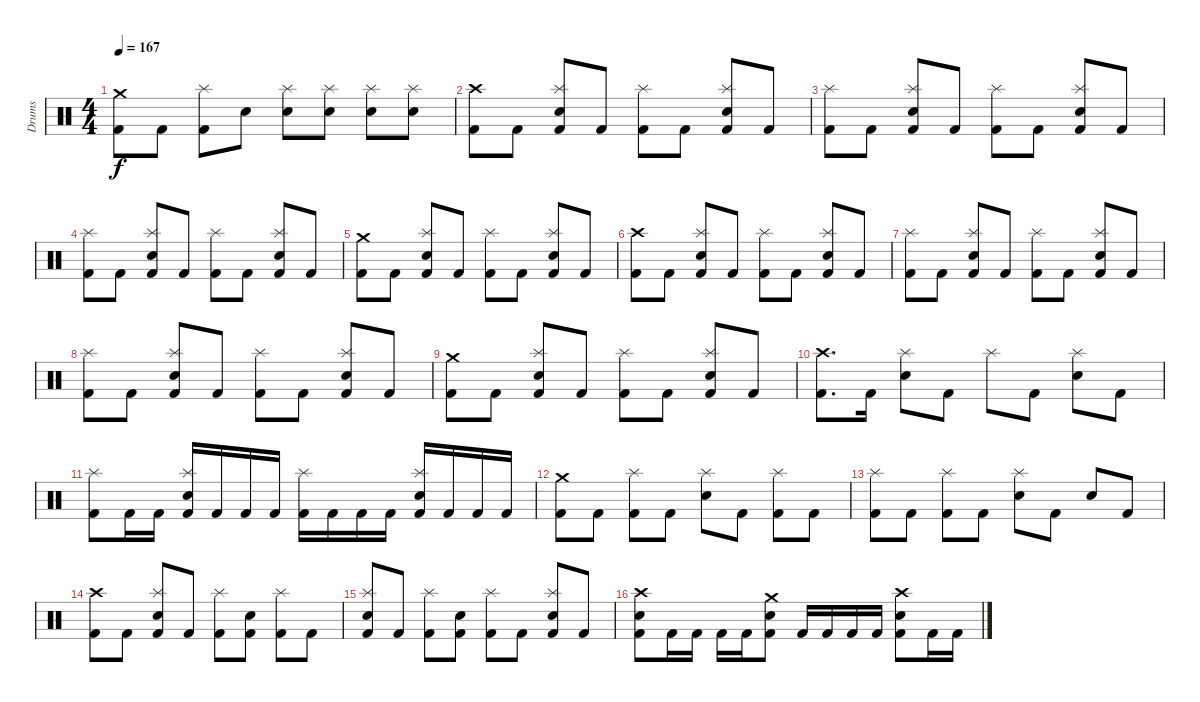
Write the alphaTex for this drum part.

\track ("Drums" "Drums") {instrument percussion}
\staff {score}
\articulation defaults
\ts (4 4)
\tempo 167
\clef neutral
\ks c
("Crash medium (hit)" "Kick (hit) 2").8{dy f} "Kick (hit) 2".8 ("Splash (hit)" "Kick (hit) 2").8 "Snare (hit) 2".8 ("Splash (hit)" "Snare (hit) 2").8 ("Splash (hit)" "Snare (hit) 2").8 ("Splash (hit)" "Snare (hit) 2").8 ("Splash (hit)" "Snare (hit) 2").8 |
("Crash high (hit)" "Kick (hit) 2").8 "Kick (hit) 2".8 ("Splash (hit)" "Snare (hit) 2" "Kick (hit) 2").8 "Kick (hit) 2".8 ("Splash (hit)" "Kick (hit) 2").8 "Kick (hit) 2".8 ("Splash (hit)" "Snare (hit) 2" "Kick (hit) 2").8 "Kick (hit) 2".8 |
("Splash (hit)" "Kick (hit) 2").8 "Kick (hit) 2".8 ("Splash (hit)" "Snare (hit) 2" "Kick (hit) 2").8 "Kick (hit) 2".8 ("Splash (hit)" "Kick (hit) 2").8 "Kick (hit) 2".8 ("Splash (hit)" "Snare (hit) 2" "Kick (hit) 2").8 "Kick (hit) 2".8 |
("Splash (hit)" "Kick (hit) 2").8 "Kick (hit) 2".8 ("Splash (hit)" "Snare (hit) 2" "Kick (hit) 2").8 "Kick (hit) 2".8 ("Splash (hit)" "Kick (hit) 2").8 "Kick (hit) 2".8 ("Splash (hit)" "Snare (hit) 2" "Kick (hit) 2").8 "Kick (hit) 2".8 |
("Crash medium (hit)" "Kick (hit) 2").8 "Kick (hit) 2".8 ("Splash (hit)" "Snare (hit) 2" "Kick (hit) 2").8 "Kick (hit) 2".8 ("Splash (hit)" "Kick (hit) 2").8 "Kick (hit) 2".8 ("Splash (hit)" "Snare (hit) 2" "Kick (hit) 2").8 "Kick (hit) 2".8 |
("Crash high (hit)" "Kick (hit) 2").8 "Kick (hit) 2".8 ("Splash (hit)" "Snare (hit) 2" "Kick (hit) 2").8 "Kick (hit) 2".8 ("Splash (hit)" "Kick (hit) 2").8 "Kick (hit) 2".8 ("Splash (hit)" "Snare (hit) 2" "Kick (hit) 2").8 "Kick (hit) 2".8 |
("Splash (hit)" "Kick (hit) 2").8 "Kick (hit) 2".8 ("Splash (hit)" "Snare (hit) 2" "Kick (hit) 2").8 "Kick (hit) 2".8 ("Splash (hit)" "Kick (hit) 2").8 "Kick (hit) 2".8 ("Splash (hit)" "Snare (hit) 2" "Kick (hit) 2").8 "Kick (hit) 2".8 |
("Splash (hit)" "Kick (hit) 2").8 "Kick (hit) 2".8 ("Splash (hit)" "Snare (hit) 2" "Kick (hit) 2").8 "Kick (hit) 2".8 ("Splash (hit)" "Kick (hit) 2").8 "Kick (hit) 2".8 ("Splash (hit)" "Snare (hit) 2" "Kick (hit) 2").8 "Kick (hit) 2".8 |
("Crash medium (hit)" "Kick (hit) 2").8 "Kick (hit) 2".8 ("Splash (hit)" "Snare (hit) 2" "Kick (hit) 2").8 "Kick (hit) 2".8 ("Splash (hit)" "Kick (hit) 2").8 "Kick (hit) 2".8 ("Splash (hit)" "Snare (hit) 2" "Kick (hit) 2").8 "Kick (hit) 2".8 |
("Crash high (hit)" "Kick (hit) 2").8{d} "Kick (hit) 2".16 ("Splash (hit)" "Snare (hit) 2").8 "Kick (hit) 2".8 "Splash (hit)".8 "Kick (hit) 2".8 ("Splash (hit)" "Snare (hit) 2").8 "Kick (hit) 2".8 |
("Splash (hit)" "Kick (hit) 2").8 "Kick (hit) 2".16 "Kick (hit) 2".16 ("Splash (hit)" "Snare (hit) 2" "Kick (hit) 2").16 "Kick (hit) 2".16 "Kick (hit) 2".16 "Kick (hit) 2".16 ("Splash (hit)" "Kick (hit) 2").16 "Kick (hit) 2".16 "Kick (hit) 2".16 "Kick (hit) 2".16 ("Splash (hit)" "Snare (hit) 2" "Kick (hit) 2").16 "Kick (hit) 2".16 "Kick (hit) 2".16 "Kick (hit) 2".16 |
("Crash medium (hit)" "Kick (hit) 2").8 "Kick (hit) 2".8 ("Splash (hit)" "Kick (hit) 2").8 "Kick (hit) 2".8 ("Splash (hit)" "Snare (hit) 2").8 "Kick (hit) 2".8 ("Splash (hit)" "Kick (hit) 2").8 "Kick (hit) 2".8 |
("Splash (hit)" "Kick (hit) 2").8 "Kick (hit) 2".8 ("Splash (hit)" "Kick (hit) 2").8 "Kick (hit) 2".8 ("Splash (hit)" "Snare (hit) 2").8 "Kick (hit) 2".8 "Snare (hit) 2".8 "Kick (hit) 2".8 |
("Crash high (hit)" "Kick (hit) 2").8 "Kick (hit) 2".8 ("Splash (hit)" "Snare (hit) 2" "Kick (hit) 2").8 "Kick (hit) 2".8 ("Splash (hit)" "Kick (hit) 2").8 ("Snare (hit) 2" "Kick (hit) 2").8 ("Splash (hit)" "Kick (hit) 2").8 "Kick (hit) 2".8 |
("Splash (hit)" "Snare (hit) 2" "Kick (hit) 2").8 "Kick (hit) 2".8 ("Splash (hit)" "Kick (hit) 2").8 ("Snare (hit) 2" "Kick (hit) 2").8 ("Splash (hit)" "Kick (hit) 2").8 "Kick (hit) 2".8 ("Splash (hit)" "Snare (hit) 2" "Kick (hit) 2").8 "Kick (hit) 2".8 |
("Crash high (hit)" "Snare (hit) 2" "Kick (hit) 2").8 "Kick (hit) 2".16 "Kick (hit) 2".16 "Kick (hit) 2".16 "Kick (hit) 2".16 ("Crash medium (hit)" "Snare (hit) 2" "Kick (hit) 2").8 "Kick (hit) 2".16 "Kick (hit) 2".16 "Kick (hit) 2".16 "Kick (hit) 2".16 ("Crash high (hit)" "Snare (hit) 2" "Kick (hit) 2").8 "Kick (hit) 2".16 "Kick (hit) 2".16
